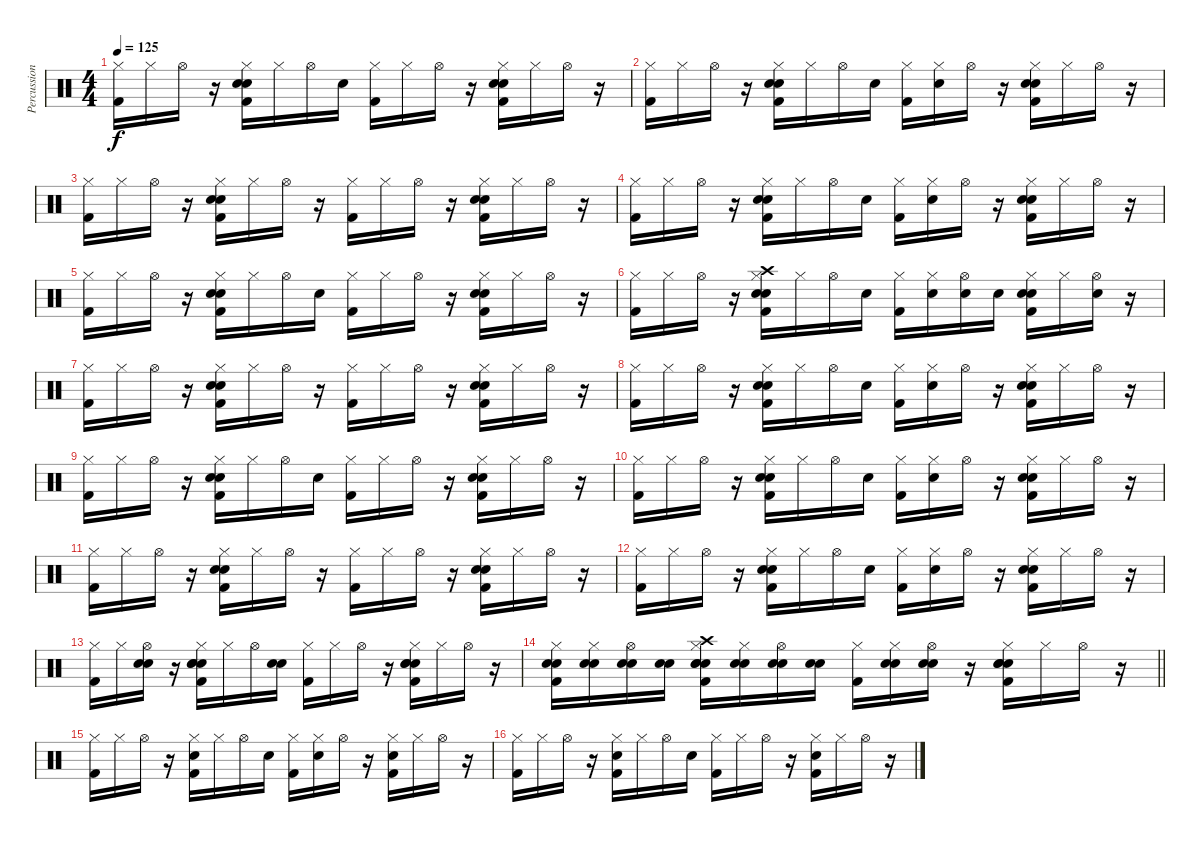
\track ("Percussion" "Percussion") {instrument percussion}
\staff {score}
\articulation defaults
\ts (4 4)
\tempo 125
\clef neutral
\ks c
("Hi-Hat (closed)" "Kick (hit) 2").16{dy f} "Hi-Hat (closed)".16 "Hi-Hat (open)".16 r.16 ("Hi-Hat (closed)" "Hand Clap (hit)" "Electric Snare (hit)" "Kick (hit) 2").16 "Hi-Hat (closed)".16 "Hi-Hat (open)".16 "Electric Snare (hit)".16 ("Hi-Hat (closed)" "Kick (hit) 2").16 "Hi-Hat (closed)".16 "Hi-Hat (open)".16 r.16 ("Hi-Hat (closed)" "Hand Clap (hit)" "Electric Snare (hit)" "Kick (hit) 2").16 "Hi-Hat (closed)".16 "Hi-Hat (open)".16 r.16 |
("Hi-Hat (closed)" "Kick (hit) 2").16 "Hi-Hat (closed)".16 "Hi-Hat (open)".16 r.16 ("Hi-Hat (closed)" "Hand Clap (hit)" "Electric Snare (hit)" "Kick (hit) 2").16 "Hi-Hat (closed)".16 "Hi-Hat (open)".16 "Electric Snare (hit)".16 ("Hi-Hat (closed)" "Kick (hit) 2").16 ("Hi-Hat (closed)" "Electric Snare (hit)").16 "Hi-Hat (open)".16 r.16 ("Hi-Hat (closed)" "Hand Clap (hit)" "Electric Snare (hit)" "Kick (hit) 2").16 "Hi-Hat (closed)".16 "Hi-Hat (open)".16 r.16 |
("Hi-Hat (closed)" "Kick (hit) 2").16 "Hi-Hat (closed)".16 "Hi-Hat (open)".16 r.16 ("Hi-Hat (closed)" "Hand Clap (hit)" "Electric Snare (hit)" "Kick (hit) 2").16 "Hi-Hat (closed)".16 "Hi-Hat (open)".16 r.16 ("Hi-Hat (closed)" "Kick (hit) 2").16 "Hi-Hat (closed)".16 "Hi-Hat (open)".16 r.16 ("Hi-Hat (closed)" "Hand Clap (hit)" "Electric Snare (hit)" "Kick (hit) 2").16 "Hi-Hat (closed)".16 "Hi-Hat (open)".16 r.16 |
("Hi-Hat (closed)" "Kick (hit) 2").16 "Hi-Hat (closed)".16 "Hi-Hat (open)".16 r.16 ("Hi-Hat (closed)" "Hand Clap (hit)" "Electric Snare (hit)" "Kick (hit) 2").16 "Hi-Hat (closed)".16 "Hi-Hat (open)".16 "Electric Snare (hit)".16 ("Hi-Hat (closed)" "Kick (hit) 2").16 ("Hi-Hat (closed)" "Electric Snare (hit)").16 "Hi-Hat (open)".16 r.16 ("Hi-Hat (closed)" "Hand Clap (hit)" "Electric Snare (hit)" "Kick (hit) 2").16 "Hi-Hat (closed)".16 "Hi-Hat (open)".16 r.16 |
("Hi-Hat (closed)" "Kick (hit) 2").16 "Hi-Hat (closed)".16 "Hi-Hat (open)".16 r.16 ("Hi-Hat (closed)" "Hand Clap (hit)" "Electric Snare (hit)" "Kick (hit) 2").16 "Hi-Hat (closed)".16 "Hi-Hat (open)".16 "Electric Snare (hit)".16 ("Hi-Hat (closed)" "Kick (hit) 2").16 "Hi-Hat (closed)".16 "Hi-Hat (open)".16 r.16 ("Hi-Hat (closed)" "Hand Clap (hit)" "Electric Snare (hit)" "Kick (hit) 2").16 "Hi-Hat (closed)".16 "Hi-Hat (open)".16 r.16 |
("Hi-Hat (closed)" "Kick (hit) 2").16 "Hi-Hat (closed)".16 "Hi-Hat (open)".16 r.16 ("Hi-Hat (closed)" "Crash high (hit)" "Hand Clap (hit)" "Electric Snare (hit)" "Kick (hit) 2").16 "Hi-Hat (closed)".16 "Hi-Hat (open)".16 "Electric Snare (hit)".16 ("Hi-Hat (closed)" "Kick (hit) 2").16 ("Hi-Hat (closed)" "Electric Snare (hit)").16 ("Hi-Hat (open)" "Electric Snare (hit)").16 "Electric Snare (hit)".16 ("Hi-Hat (closed)" "Hand Clap (hit)" "Electric Snare (hit)" "Kick (hit) 2").16 "Hi-Hat (closed)".16 ("Hi-Hat (open)" "Electric Snare (hit)").16 r.16 |
("Hi-Hat (closed)" "Kick (hit) 2").16 "Hi-Hat (closed)".16 "Hi-Hat (open)".16 r.16 ("Hi-Hat (closed)" "Hand Clap (hit)" "Electric Snare (hit)" "Kick (hit) 2").16 "Hi-Hat (closed)".16 "Hi-Hat (open)".16 r.16 ("Hi-Hat (closed)" "Kick (hit) 2").16 "Hi-Hat (closed)".16 "Hi-Hat (open)".16 r.16 ("Hi-Hat (closed)" "Hand Clap (hit)" "Electric Snare (hit)" "Kick (hit) 2").16 "Hi-Hat (closed)".16 "Hi-Hat (open)".16 r.16 |
("Hi-Hat (closed)" "Kick (hit) 2").16 "Hi-Hat (closed)".16 "Hi-Hat (open)".16 r.16 ("Hi-Hat (closed)" "Hand Clap (hit)" "Electric Snare (hit)" "Kick (hit) 2").16 "Hi-Hat (closed)".16 "Hi-Hat (open)".16 "Electric Snare (hit)".16 ("Hi-Hat (closed)" "Kick (hit) 2").16 ("Hi-Hat (closed)" "Electric Snare (hit)").16 "Hi-Hat (open)".16 r.16 ("Hi-Hat (closed)" "Hand Clap (hit)" "Electric Snare (hit)" "Kick (hit) 2").16 "Hi-Hat (closed)".16 "Hi-Hat (open)".16 r.16 |
("Hi-Hat (closed)" "Kick (hit) 2").16 "Hi-Hat (closed)".16 "Hi-Hat (open)".16 r.16 ("Hi-Hat (closed)" "Hand Clap (hit)" "Electric Snare (hit)" "Kick (hit) 2").16 "Hi-Hat (closed)".16 "Hi-Hat (open)".16 "Electric Snare (hit)".16 ("Hi-Hat (closed)" "Kick (hit) 2").16 "Hi-Hat (closed)".16 "Hi-Hat (open)".16 r.16 ("Hi-Hat (closed)" "Hand Clap (hit)" "Electric Snare (hit)" "Kick (hit) 2").16 "Hi-Hat (closed)".16 "Hi-Hat (open)".16 r.16 |
("Hi-Hat (closed)" "Kick (hit) 2").16 "Hi-Hat (closed)".16 "Hi-Hat (open)".16 r.16 ("Hi-Hat (closed)" "Hand Clap (hit)" "Electric Snare (hit)" "Kick (hit) 2").16 "Hi-Hat (closed)".16 "Hi-Hat (open)".16 "Electric Snare (hit)".16 ("Hi-Hat (closed)" "Kick (hit) 2").16 ("Hi-Hat (closed)" "Electric Snare (hit)").16 "Hi-Hat (open)".16 r.16 ("Hi-Hat (closed)" "Hand Clap (hit)" "Electric Snare (hit)" "Kick (hit) 2").16 "Hi-Hat (closed)".16 "Hi-Hat (open)".16 r.16 |
("Hi-Hat (closed)" "Kick (hit) 2").16 "Hi-Hat (closed)".16 "Hi-Hat (open)".16 r.16 ("Hi-Hat (closed)" "Hand Clap (hit)" "Electric Snare (hit)" "Kick (hit) 2").16 "Hi-Hat (closed)".16 "Hi-Hat (open)".16 r.16 ("Hi-Hat (closed)" "Kick (hit) 2").16 "Hi-Hat (closed)".16 "Hi-Hat (open)".16 r.16 ("Hi-Hat (closed)" "Hand Clap (hit)" "Electric Snare (hit)" "Kick (hit) 2").16 "Hi-Hat (closed)".16 "Hi-Hat (open)".16 r.16 |
("Hi-Hat (closed)" "Kick (hit) 2").16 "Hi-Hat (closed)".16 "Hi-Hat (open)".16 r.16 ("Hi-Hat (closed)" "Hand Clap (hit)" "Electric Snare (hit)" "Kick (hit) 2").16 "Hi-Hat (closed)".16 "Hi-Hat (open)".16 "Electric Snare (hit)".16 ("Hi-Hat (closed)" "Kick (hit) 2").16 ("Hi-Hat (closed)" "Electric Snare (hit)").16 "Hi-Hat (open)".16 r.16 ("Hi-Hat (closed)" "Hand Clap (hit)" "Electric Snare (hit)" "Kick (hit) 2").16 "Hi-Hat (closed)".16 "Hi-Hat (open)".16 r.16 |
("Hi-Hat (closed)" "Kick (hit) 2").16 "Hi-Hat (closed)".16 ("Hi-Hat (open)" "Snare (hit) 2" "Electric Snare (hit)").16 r.16 ("Hi-Hat (closed)" "Snare (hit) 2" "Hand Clap (hit)" "Electric Snare (hit)" "Kick (hit) 2").16 "Hi-Hat (closed)".16 "Hi-Hat (open)".16 ("Snare (hit) 2" "Electric Snare (hit)").16 ("Hi-Hat (closed)" "Kick (hit) 2").16 "Hi-Hat (closed)".16 "Hi-Hat (open)".16 r.16 ("Hi-Hat (closed)" "Snare (hit) 2" "Hand Clap (hit)" "Electric Snare (hit)" "Kick (hit) 2").16 "Hi-Hat (closed)".16 "Hi-Hat (open)".16 r.16 |
\barLineRight lightlight
("Hi-Hat (closed)" "Snare (hit) 2" "Electric Snare (hit)" "Kick (hit) 2").16 ("Hi-Hat (closed)" "Snare (hit) 2" "Electric Snare (hit)").16 ("Hi-Hat (open)" "Snare (hit) 2" "Electric Snare (hit)").16 ("Snare (hit) 2" "Electric Snare (hit)").16 ("Hi-Hat (closed)" "Crash high (hit)" "Snare (hit) 2" "Hand Clap (hit)" "Electric Snare (hit)" "Kick (hit) 2").16 ("Hi-Hat (closed)" "Snare (hit) 2" "Electric Snare (hit)").16 ("Hi-Hat (open)" "Snare (hit) 2" "Electric Snare (hit)").16 ("Snare (hit) 2" "Electric Snare (hit)").16 ("Hi-Hat (closed)" "Kick (hit) 2").16 ("Hi-Hat (closed)" "Snare (hit) 2" "Electric Snare (hit)").16 ("Hi-Hat (open)" "Snare (hit) 2" "Electric Snare (hit)").16 r.16 ("Hi-Hat (closed)" "Snare (hit) 2" "Hand Clap (hit)" "Electric Snare (hit)" "Kick (hit) 2").16 "Hi-Hat (closed)".16 "Hi-Hat (open)".16 r.16 |
("Hi-Hat (closed)" "Kick (hit) 2").16 "Hi-Hat (closed)".16 "Hi-Hat (open)".16 r.16 ("Hi-Hat (closed)" "Electric Snare (hit)" "Kick (hit) 2").16 "Hi-Hat (closed)".16 "Hi-Hat (open)".16 "Electric Snare (hit)".16 ("Hi-Hat (closed)" "Kick (hit) 2").16 ("Hi-Hat (closed)" "Electric Snare (hit)").16 "Hi-Hat (open)".16 r.16 ("Hi-Hat (closed)" "Electric Snare (hit)" "Kick (hit) 2").16 "Hi-Hat (closed)".16 "Hi-Hat (open)".16 r.16 |
("Hi-Hat (closed)" "Kick (hit) 2").16 "Hi-Hat (closed)".16 "Hi-Hat (open)".16 r.16 ("Hi-Hat (closed)" "Electric Snare (hit)" "Kick (hit) 2").16 "Hi-Hat (closed)".16 "Hi-Hat (open)".16 "Electric Snare (hit)".16 ("Hi-Hat (closed)" "Kick (hit) 2").16 "Hi-Hat (closed)".16 "Hi-Hat (open)".16 r.16 ("Hi-Hat (closed)" "Electric Snare (hit)" "Kick (hit) 2").16 "Hi-Hat (closed)".16 "Hi-Hat (open)".16 r.16
